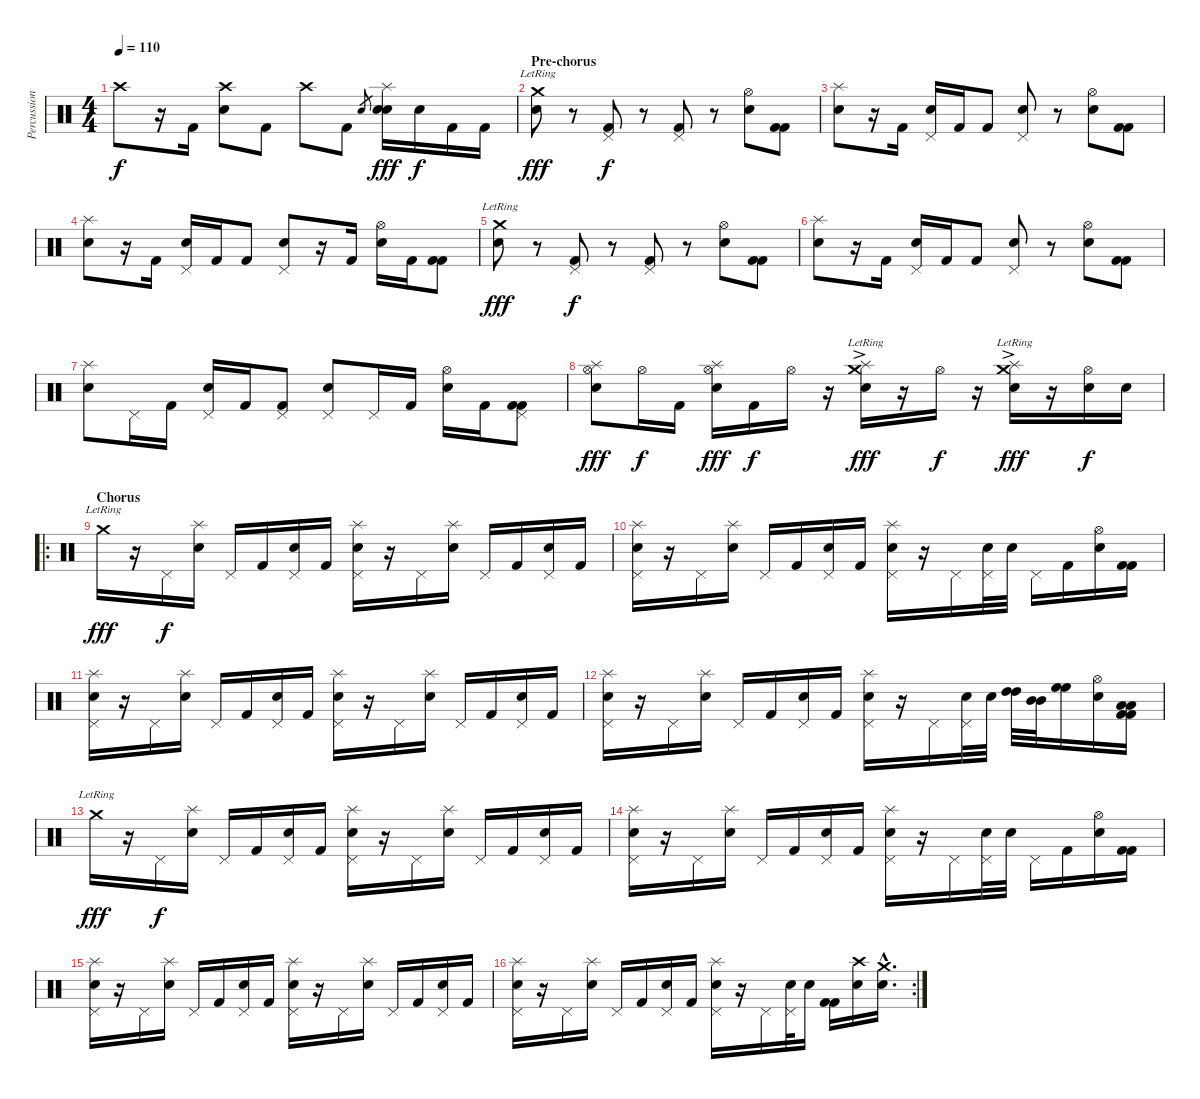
\track ("Percussion" "Percussion") {instrument percussion}
\staff {score}
\articulation defaults
\ts (4 4)
\tempo 110
\clef neutral
\ks c "Crash high (hit)".8{dy f}
r.16 "Kick (hit) 2".16 ("Crash high (hit)" "Snare (hit) 2").8 "Kick (hit) 2".8 "Crash high (hit)".8 "Kick (hit) 2".8 "Snare (hit) 2".8{gr} ("Hand Clap (hit)" "Splash (hit)" "Snare (hit) 2").16{dy fff} "Snare (hit) 2".16{dy f} "Kick (hit) 2".16 "Kick (hit) 2".16 |
\section ("" "Pre-chorus")
("Crash medium (hit)"{lr} "Snare (hit) 2").8{dy fff} r.8 ("Pedal Hi-Hat (hit)" "Kick (hit) 2").8{dy f} r.8 ("Pedal Hi-Hat (hit)" "Kick (hit) 2").8 r.8 ("Hi-Hat (open)" "Snare (hit) 2").8 ("Kick (hit) 2" "Kick (hit) 2").8 |
("Splash (hit)" "Snare (hit) 2").8 r.16 "Kick (hit) 2".16 ("Pedal Hi-Hat (hit)" "Snare (hit) 2").16 "Kick (hit) 2".16 "Kick (hit) 2".8 ("Pedal Hi-Hat (hit)" "Snare (hit) 2").8 r.8 ("Hi-Hat (open)" "Snare (hit) 2").8 ("Kick (hit) 2" "Kick (hit) 2").8 |
("Splash (hit)" "Snare (hit) 2").8 r.16 "Kick (hit) 2".16 ("Pedal Hi-Hat (hit)" "Snare (hit) 2").16 "Kick (hit) 2".16 "Kick (hit) 2".8 ("Pedal Hi-Hat (hit)" "Snare (hit) 2").8 r.16 "Kick (hit) 2".16 ("Hi-Hat (open)" "Snare (hit) 2").16 "Kick (hit) 2".16 ("Kick (hit) 2" "Kick (hit) 2").8 |
("Crash medium (hit)"{lr} "Snare (hit) 2").8{dy fff} r.8 ("Pedal Hi-Hat (hit)" "Kick (hit) 2").8{dy f} r.8 ("Pedal Hi-Hat (hit)" "Kick (hit) 2").8 r.8 ("Hi-Hat (open)" "Snare (hit) 2").8 ("Kick (hit) 2" "Kick (hit) 2").8 |
("Splash (hit)" "Snare (hit) 2").8 r.16 "Kick (hit) 2".16 ("Pedal Hi-Hat (hit)" "Snare (hit) 2").16 "Kick (hit) 2".16 "Kick (hit) 2".8 ("Pedal Hi-Hat (hit)" "Snare (hit) 2").8 r.8 ("Hi-Hat (open)" "Snare (hit) 2").8 ("Kick (hit) 2" "Kick (hit) 2").8 |
("Splash (hit)" "Snare (hit) 2").8 "Pedal Hi-Hat (hit)".16 "Kick (hit) 2".16 ("Pedal Hi-Hat (hit)" "Snare (hit) 2").16 "Kick (hit) 2".16 ("Pedal Hi-Hat (hit)" "Kick (hit) 2").8 ("Pedal Hi-Hat (hit)" "Snare (hit) 2").8 "Pedal Hi-Hat (hit)".16 "Kick (hit) 2".16 ("Hi-Hat (open)" "Snare (hit) 2").16 "Kick (hit) 2".16 ("Pedal Hi-Hat (hit)" "Kick (hit) 2" "Kick (hit) 2").8 |
("Hi-Hat (open)" "Splash (hit)" "Snare (hit) 2").8{dy fff} "Hi-Hat (open)".16{dy f} "Kick (hit) 2".16 ("Hi-Hat (open)" "Splash (hit)" "Snare (hit) 2").16{dy fff} "Kick (hit) 2".16{dy f} "Hi-Hat (open)".16 r.16 ("Crash medium (hit)"{ac lr} "Splash (hit)" "Electric Snare (hit)").16{dy fff} r.16 "Hi-Hat (open)".16{dy f} r.16 ("Crash medium (hit)"{ac lr} "Splash (hit)" "Snare (hit) 2").16{dy fff} r.16 ("Hi-Hat (open)" "Snare (hit) 2").16{dy f} "Snare (hit) 2".16 |
\ro
\section ("" "Chorus")
"Crash medium (hit)"{lr}.16{dy fff} r.16 "Pedal Hi-Hat (hit)".16{dy f} ("Splash (hit)" "Electric Snare (hit)").16 "Pedal Hi-Hat (hit)".16 "Kick (hit) 2".16 ("Electric Snare (hit)" "Pedal Hi-Hat (hit)").16 "Kick (hit) 2".16 ("Splash (hit)" "Electric Snare (hit)" "Pedal Hi-Hat (hit)").16 r.16 "Pedal Hi-Hat (hit)".16 ("Splash (hit)" "Electric Snare (hit)").16 "Pedal Hi-Hat (hit)".16 "Kick (hit) 2".16 ("Electric Snare (hit)" "Pedal Hi-Hat (hit)").16 "Kick (hit) 2".16 |
("Splash (hit)" "Electric Snare (hit)" "Pedal Hi-Hat (hit)").16 r.16 "Pedal Hi-Hat (hit)".16 ("Splash (hit)" "Electric Snare (hit)").16 "Pedal Hi-Hat (hit)".16 "Kick (hit) 2".16 ("Electric Snare (hit)" "Pedal Hi-Hat (hit)").16 "Kick (hit) 2".16 ("Splash (hit)" "Electric Snare (hit)" "Pedal Hi-Hat (hit)").16 r.16 "Pedal Hi-Hat (hit)".16 ("Electric Snare (hit)" "Pedal Hi-Hat (hit)").32 "Electric Snare (hit)".32 "Pedal Hi-Hat (hit)".16 "Kick (hit) 2".16 ("Snare (hit) 2" "Hi-Hat (open)").16 ("Kick (hit) 2" "Kick (hit) 2").16 |
("Splash (hit)" "Electric Snare (hit)" "Pedal Hi-Hat (hit)").16 r.16 "Pedal Hi-Hat (hit)".16 ("Splash (hit)" "Electric Snare (hit)").16 "Pedal Hi-Hat (hit)".16 "Kick (hit) 2".16 ("Electric Snare (hit)" "Pedal Hi-Hat (hit)").16 "Kick (hit) 2".16 ("Splash (hit)" "Electric Snare (hit)" "Pedal Hi-Hat (hit)").16 r.16 "Pedal Hi-Hat (hit)".16 ("Splash (hit)" "Electric Snare (hit)").16 "Pedal Hi-Hat (hit)".16 "Kick (hit) 2".16 ("Electric Snare (hit)" "Pedal Hi-Hat (hit)").16 "Kick (hit) 2".16 |
("Splash (hit)" "Electric Snare (hit)" "Pedal Hi-Hat (hit)").16 r.16 "Pedal Hi-Hat (hit)".16 ("Splash (hit)" "Electric Snare (hit)").16 "Pedal Hi-Hat (hit)".16 "Kick (hit) 2".16 ("Electric Snare (hit)" "Pedal Hi-Hat (hit)").16 "Kick (hit) 2".16 ("Splash (hit)" "Electric Snare (hit)" "Pedal Hi-Hat (hit)").16 r.16 "Pedal Hi-Hat (hit)".16 ("Electric Snare (hit)" "Pedal Hi-Hat (hit)").32 "Electric Snare (hit)".32 ("High Tom (hit)" "High Tom (hit)").32 ("Mid Tom (hit)" "Mid Tom (hit)").32 ("High Floor Tom (hit)" "High Floor Tom (hit)").16 ("Snare (hit) 2" "Hi-Hat (open)").16 ("Low Tom (hit)" "Low Tom (hit)" "Kick (hit) 2" "Kick (hit) 2").16 |
"Crash medium (hit)"{lr}.16{dy fff} r.16 "Pedal Hi-Hat (hit)".16{dy f} ("Splash (hit)" "Electric Snare (hit)").16 "Pedal Hi-Hat (hit)".16 "Kick (hit) 2".16 ("Electric Snare (hit)" "Pedal Hi-Hat (hit)").16 "Kick (hit) 2".16 ("Splash (hit)" "Electric Snare (hit)" "Pedal Hi-Hat (hit)").16 r.16 "Pedal Hi-Hat (hit)".16 ("Splash (hit)" "Electric Snare (hit)").16 "Pedal Hi-Hat (hit)".16 "Kick (hit) 2".16 ("Electric Snare (hit)" "Pedal Hi-Hat (hit)").16 "Kick (hit) 2".16 |
("Splash (hit)" "Electric Snare (hit)" "Pedal Hi-Hat (hit)").16 r.16 "Pedal Hi-Hat (hit)".16 ("Splash (hit)" "Electric Snare (hit)").16 "Pedal Hi-Hat (hit)".16 "Kick (hit) 2".16 ("Electric Snare (hit)" "Pedal Hi-Hat (hit)").16 "Kick (hit) 2".16 ("Splash (hit)" "Electric Snare (hit)" "Pedal Hi-Hat (hit)").16 r.16 "Pedal Hi-Hat (hit)".16 ("Electric Snare (hit)" "Pedal Hi-Hat (hit)").32 "Electric Snare (hit)".32 "Pedal Hi-Hat (hit)".16 "Kick (hit) 2".16 ("Snare (hit) 2" "Hi-Hat (open)").16 ("Kick (hit) 2" "Kick (hit) 2").16 |
("Splash (hit)" "Electric Snare (hit)" "Pedal Hi-Hat (hit)").16 r.16 "Pedal Hi-Hat (hit)".16 ("Splash (hit)" "Electric Snare (hit)").16 "Pedal Hi-Hat (hit)".16 "Kick (hit) 2".16 ("Electric Snare (hit)" "Pedal Hi-Hat (hit)").16 "Kick (hit) 2".16 ("Splash (hit)" "Electric Snare (hit)" "Pedal Hi-Hat (hit)").16 r.16 "Pedal Hi-Hat (hit)".16 ("Splash (hit)" "Electric Snare (hit)").16 "Pedal Hi-Hat (hit)".16 "Kick (hit) 2".16 ("Electric Snare (hit)" "Pedal Hi-Hat (hit)").16 "Kick (hit) 2".16 |
\rc 2
("Splash (hit)" "Electric Snare (hit)" "Pedal Hi-Hat (hit)").16 r.16 "Pedal Hi-Hat (hit)".16 ("Splash (hit)" "Electric Snare (hit)").16 "Pedal Hi-Hat (hit)".16 "Kick (hit) 2".16 ("Electric Snare (hit)" "Pedal Hi-Hat (hit)").16 "Kick (hit) 2".16 ("Splash (hit)" "Electric Snare (hit)" "Pedal Hi-Hat (hit)").16 r.16 "Pedal Hi-Hat (hit)".16 ("Electric Snare (hit)" "Pedal Hi-Hat (hit)").32 "Electric Snare (hit)".16 ("Kick (hit) 2" "Kick (hit) 2").16 ("Snare (hit) 2" "Crash high (hit)").16 ("Snare (hit) 2"{hac} "Crash medium (hit)"{hac}).16{d}
